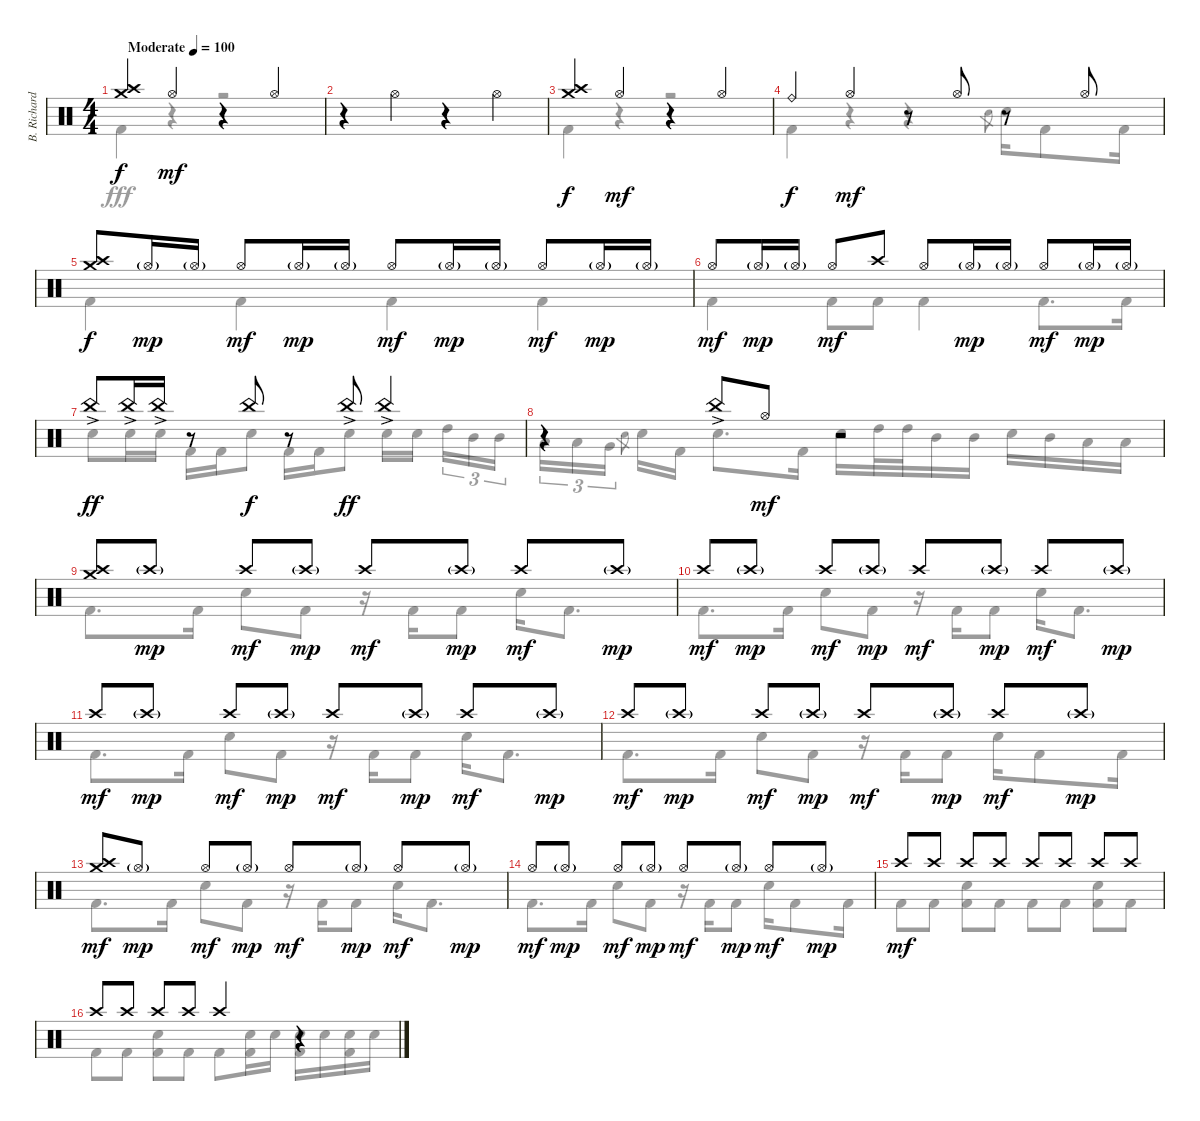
\track ("B. Richardson Drums" "B. Richard") {instrument percussion}
\staff {score}
\articulation defaults
\voice
\ts (4 4)
\tempo (100 "Moderate")
\clef neutral
\ks c
("Crash high (hit)" "Crash medium (hit)").4{dy f} "Hi-Hat (open)".4{dy mf} r.4 "Hi-Hat (open)".4 |
r.4 "Hi-Hat (open)".4 r.4 "Hi-Hat (open)".4 |
("Crash high (hit)" "Crash medium (hit)").4{dy f} "Hi-Hat (open)".4{dy mf} r.4 "Hi-Hat (open)".4 |
"Ride (bell)".4{dy f} "Hi-Hat (open)".4{dy mf} r.8 "Hi-Hat (open)".8 r.8 "Hi-Hat (open)".8 |
("Crash high (hit)" "Crash medium (hit)").8{dy f} "Hi-Hat (open)"{g}.16{dy mp} "Hi-Hat (open)"{g}.16 "Hi-Hat (open)".8{dy mf} "Hi-Hat (open)"{g}.16{dy mp} "Hi-Hat (open)"{g}.16 "Hi-Hat (open)".8{dy mf} "Hi-Hat (open)"{g}.16{dy mp} "Hi-Hat (open)"{g}.16 "Hi-Hat (open)".8{dy mf} "Hi-Hat (open)"{g}.16{dy mp} "Hi-Hat (open)"{g}.16 |
"Hi-Hat (open)".8{dy mf} "Hi-Hat (open)"{g}.16{dy mp} "Hi-Hat (open)"{g}.16 "Hi-Hat (open)".8{dy mf} "Crash high (hit)".8 "Hi-Hat (open)".8 "Hi-Hat (open)"{g}.16{dy mp} "Hi-Hat (open)"{g}.16 "Hi-Hat (open)".8{dy mf} "Hi-Hat (open)"{g}.16{dy mp} "Hi-Hat (open)"{g}.16 |
"China (hit)"{ac}.8{dy ff} "China (hit)"{ac}.16 "China (hit)"{ac}.16 r.8 "China (hit)".8{dy f} r.8 "China (hit)"{ac}.8{dy ff} "China (hit)"{ac}.4 |
r.4 "China (hit)"{ac}.8 "Hi-Hat (open)".8{dy mf} r.2 |
("Crash high (hit)" "Crash medium (hit)").8 "Crash high (hit)"{g}.8{dy mp} "Crash high (hit)".8{dy mf} "Crash high (hit)"{g}.8{dy mp} "Crash high (hit)".8{dy mf} "Crash high (hit)"{g}.8{dy mp} "Crash high (hit)".8{dy mf} "Crash high (hit)"{g}.8{dy mp} |
"Crash high (hit)".8{dy mf} "Crash high (hit)"{g}.8{dy mp} "Crash high (hit)".8{dy mf} "Crash high (hit)"{g}.8{dy mp} "Crash high (hit)".8{dy mf} "Crash high (hit)"{g}.8{dy mp} "Crash high (hit)".8{dy mf} "Crash high (hit)"{g}.8{dy mp} |
"Crash high (hit)".8{dy mf} "Crash high (hit)"{g}.8{dy mp} "Crash high (hit)".8{dy mf} "Crash high (hit)"{g}.8{dy mp} "Crash high (hit)".8{dy mf} "Crash high (hit)"{g}.8{dy mp} "Crash high (hit)".8{dy mf} "Crash high (hit)"{g}.8{dy mp} |
"Crash high (hit)".8{dy mf} "Crash high (hit)"{g}.8{dy mp} "Crash high (hit)".8{dy mf} "Crash high (hit)"{g}.8{dy mp} "Crash high (hit)".8{dy mf} "Crash high (hit)"{g}.8{dy mp} "Crash high (hit)".8{dy mf} "Crash high (hit)"{g}.8{dy mp} |
("Crash high (hit)" "Crash medium (hit)").8{dy mf} "Hi-Hat (open)"{g}.8{dy mp} "Hi-Hat (open)".8{dy mf} "Hi-Hat (open)"{g}.8{dy mp} "Hi-Hat (open)".8{dy mf} "Hi-Hat (open)"{g}.8{dy mp} "Hi-Hat (open)".8{dy mf} "Hi-Hat (open)"{g}.8{dy mp} |
"Hi-Hat (open)".8{dy mf} "Hi-Hat (open)"{g}.8{dy mp} "Hi-Hat (open)".8{dy mf} "Hi-Hat (open)"{g}.8{dy mp} "Hi-Hat (open)".8{dy mf} "Hi-Hat (open)"{g}.8{dy mp} "Hi-Hat (open)".8{dy mf} "Hi-Hat (open)"{g}.8{dy mp} |
"Crash high (hit)".8{dy mf} "Crash high (hit)".8 "Crash high (hit)".8 "Crash high (hit)".8 "Crash high (hit)".8 "Crash high (hit)".8 "Crash high (hit)".8 "Crash high (hit)".8 |
"Crash high (hit)".8 "Crash high (hit)".8 "Crash high (hit)".8 "Crash high (hit)".8 "Crash high (hit)".4 r.4
\voice
\clef neutral
\ottava regular
\simile none
\ks c "Kick (hit) 2".4{dy fff}
r.4 r.2 |
|
"Kick (hit) 2".4 r.4 r.2 |
"Kick (hit) 2".4 r.4 r.4 "Electric Snare (hit)".8{gr} "Electric Snare (hit)".16 "Kick (hit) 2".8 "Kick (hit) 2".16 |
"Kick (hit) 2".4 "Kick (hit) 2".4 "Kick (hit) 2".4 "Kick (hit) 2".4 |
"Kick (hit) 2".4 "Kick (hit) 2".8 "Kick (hit) 2".8 "Kick (hit) 2".4 "Kick (hit) 2".8{d} "Kick (hit) 2".16 |
"Electric Snare (hit)".8 "Electric Snare (hit)".16 "Electric Snare (hit)".16 "Kick (hit) 2".16 "Kick (hit) 2".16 "Electric Snare (hit)".8 "Kick (hit) 2".16 "Kick (hit) 2".16 "Electric Snare (hit)".8 "Electric Snare (hit)".16 "Electric Snare (hit)".16{beam splitsecondary} "High Tom (hit)".16{tu (3 2)} "Mid Tom (hit)".16{tu (3 2)} "Mid Tom (hit)".16{tu (3 2)} |
"Low Tom (hit)".16{tu (3 2)} "Low Tom (hit)".16{tu (3 2)} "Very Low Tom (hit)".16{tu (3 2)} "Electric Snare (hit)".8{gr beam splitsecondary} "Electric Snare (hit)".16 "Kick (hit) 2".16 "Electric Snare (hit)".8{d} "Kick (hit) 2".16 "Electric Snare (hit)".16 "High Tom (hit)".32 "High Tom (hit)".32 "Mid Tom (hit)".16 "Mid Tom (hit)".16 "Electric Snare (hit)".16 "Mid Tom (hit)".16 "Low Tom (hit)".16 "Low Tom (hit)".16 |
"Kick (hit) 2".8{d} "Kick (hit) 2".16 "Electric Snare (hit)".8 "Kick (hit) 2".8 r.16 "Kick (hit) 2".16 "Kick (hit) 2".8 "Electric Snare (hit)".16 "Kick (hit) 2".8{d} |
"Kick (hit) 2".8{d} "Kick (hit) 2".16 "Electric Snare (hit)".8 "Kick (hit) 2".8 r.16 "Kick (hit) 2".16 "Kick (hit) 2".8 "Electric Snare (hit)".16 "Kick (hit) 2".8{d} |
"Kick (hit) 2".8{d} "Kick (hit) 2".16 "Electric Snare (hit)".8 "Kick (hit) 2".8 r.16 "Kick (hit) 2".16 "Kick (hit) 2".8 "Electric Snare (hit)".16 "Kick (hit) 2".8{d} |
"Kick (hit) 2".8{d} "Kick (hit) 2".16 "Electric Snare (hit)".8 "Kick (hit) 2".8 r.16 "Kick (hit) 2".16 "Kick (hit) 2".8 "Electric Snare (hit)".16 "Kick (hit) 2".8 "Kick (hit) 2".16 |
"Kick (hit) 2".8{d} "Kick (hit) 2".16 "Electric Snare (hit)".8 "Kick (hit) 2".8 r.16 "Kick (hit) 2".16 "Kick (hit) 2".8 "Electric Snare (hit)".16 "Kick (hit) 2".8{d} |
"Kick (hit) 2".8{d} "Kick (hit) 2".16 "Electric Snare (hit)".8 "Kick (hit) 2".8 r.16 "Kick (hit) 2".16 "Kick (hit) 2".8 "Electric Snare (hit)".16 "Kick (hit) 2".8 "Kick (hit) 2".16 |
"Kick (hit) 2".8 "Kick (hit) 2".8 ("Electric Snare (hit)" "Kick (hit) 2").8 "Kick (hit) 2".8 "Kick (hit) 2".8 "Kick (hit) 2".8 ("Electric Snare (hit)" "Kick (hit) 2").8 "Kick (hit) 2".8 |
"Kick (hit) 2".8 "Kick (hit) 2".8 ("Electric Snare (hit)" "Kick (hit) 2").8 "Kick (hit) 2".8 "Kick (hit) 2".8 ("Electric Snare (hit)" "Kick (hit) 2").16 "Electric Snare (hit)".16 ("Electric Snare (hit)" "Kick (hit) 2").16 "Electric Snare (hit)".16 ("Electric Snare (hit)" "Kick (hit) 2").16 "Electric Snare (hit)".16
